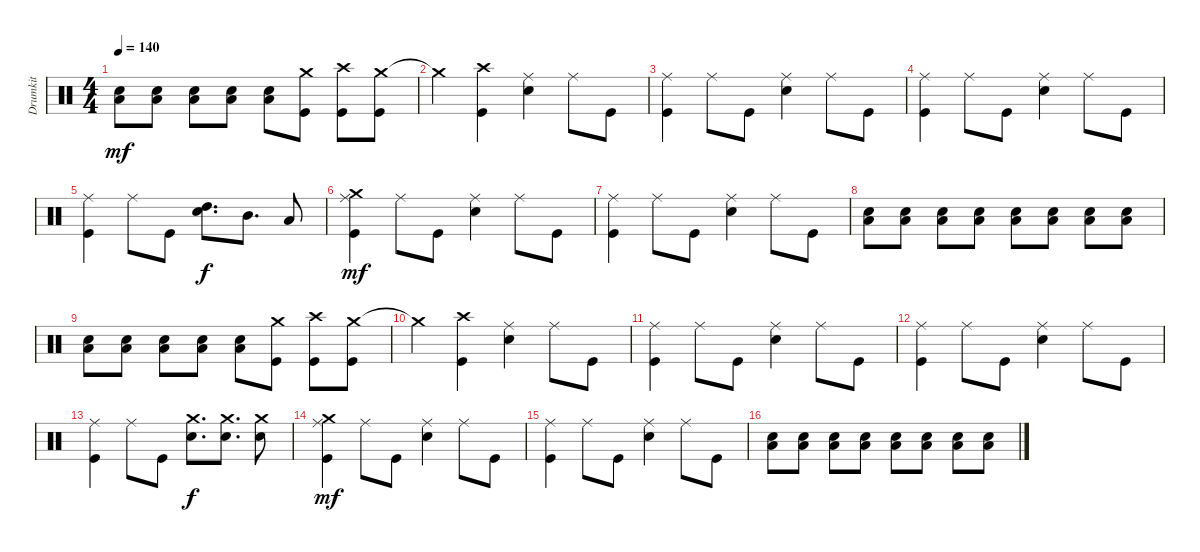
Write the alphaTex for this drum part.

\track ("Drumkit" "Drumkit") {instrument percussion}
\staff {score}
\articulation defaults
\ts (4 4)
\tempo 140
\clef neutral
\ks c
("Snare (hit) 2" "Low Tom (hit)").8{dy mf} ("Snare (hit) 2" "Low Tom (hit)").8 ("Snare (hit) 2" "Low Tom (hit)").8 ("Snare (hit) 2" "Low Tom (hit)").8 ("Snare (hit) 2" "Low Tom (hit)").8 ("Crash medium (hit)" "Kick (hit)").8 ("Crash high (hit)" "Kick (hit)").8 ("Crash medium (hit)" "Kick (hit)").8 |
"Crash medium (hit)"{t}.4 ("Crash high (hit)" "Kick (hit)").4 ("Ride (middle)" "Snare (hit) 2").4 "Ride (middle)".8 "Kick (hit)".8 |
("Ride (middle)" "Kick (hit)").4 "Ride (middle)".8 "Kick (hit)".8 ("Ride (middle)" "Snare (hit) 2").4 "Ride (middle)".8 "Kick (hit)".8 |
("Ride (middle)" "Kick (hit)").4 "Ride (middle)".8 "Kick (hit)".8 ("Ride (middle)" "Snare (hit) 2").4 "Ride (middle)".8 "Kick (hit)".8 |
("Ride (middle)" "Kick (hit)").4 "Ride (middle)".8 "Kick (hit)".8 ("Snare (hit) 2" "High Tom (hit)").8{d dy f} "Mid Tom (hit)".8{d} "Low Tom (hit)".8 |
("Ride (middle)" "Crash medium (hit)" "Kick (hit)").4{dy mf} "Ride (middle)".8 "Kick (hit)".8 ("Ride (middle)" "Snare (hit) 2").4 "Ride (middle)".8 "Kick (hit)".8 |
("Ride (middle)" "Kick (hit)").4 "Ride (middle)".8 "Kick (hit)".8 ("Ride (middle)" "Snare (hit) 2").4 "Ride (middle)".8 "Kick (hit)".8 |
("Snare (hit) 2" "Low Tom (hit)").8 ("Snare (hit) 2" "Low Tom (hit)").8 ("Snare (hit) 2" "Low Tom (hit)").8 ("Snare (hit) 2" "Low Tom (hit)").8 ("Snare (hit) 2" "Low Tom (hit)").8 ("Snare (hit) 2" "Low Tom (hit)").8 ("Snare (hit) 2" "Low Tom (hit)").8 ("Snare (hit) 2" "Low Tom (hit)").8 |
("Snare (hit) 2" "Low Tom (hit)").8 ("Snare (hit) 2" "Low Tom (hit)").8 ("Snare (hit) 2" "Low Tom (hit)").8 ("Snare (hit) 2" "Low Tom (hit)").8 ("Snare (hit) 2" "Low Tom (hit)").8 ("Crash medium (hit)" "Kick (hit)").8 ("Crash high (hit)" "Kick (hit)").8 ("Crash medium (hit)" "Kick (hit)").8 |
"Crash medium (hit)"{t}.4 ("Crash high (hit)" "Kick (hit)").4 ("Ride (middle)" "Snare (hit) 2").4 "Ride (middle)".8 "Kick (hit)".8 |
("Ride (middle)" "Kick (hit)").4 "Ride (middle)".8 "Kick (hit)".8 ("Ride (middle)" "Snare (hit) 2").4 "Ride (middle)".8 "Kick (hit)".8 |
("Ride (middle)" "Kick (hit)").4 "Ride (middle)".8 "Kick (hit)".8 ("Ride (middle)" "Snare (hit) 2").4 "Ride (middle)".8 "Kick (hit)".8 |
("Ride (middle)" "Kick (hit)").4 "Ride (middle)".8 "Kick (hit)".8 ("Crash medium (hit)" "Snare (hit) 2").8{d dy f} ("Crash medium (hit)" "Snare (hit) 2").8{d} ("Crash medium (hit)" "Snare (hit) 2").8 |
("Ride (middle)" "Crash medium (hit)" "Kick (hit)").4{dy mf} "Ride (middle)".8 "Kick (hit)".8 ("Ride (middle)" "Snare (hit) 2").4 "Ride (middle)".8 "Kick (hit)".8 |
("Ride (middle)" "Kick (hit)").4 "Ride (middle)".8 "Kick (hit)".8 ("Ride (middle)" "Snare (hit) 2").4 "Ride (middle)".8 "Kick (hit)".8 |
("Snare (hit) 2" "Low Tom (hit)").8 ("Snare (hit) 2" "Low Tom (hit)").8 ("Snare (hit) 2" "Low Tom (hit)").8 ("Snare (hit) 2" "Low Tom (hit)").8 ("Snare (hit) 2" "Low Tom (hit)").8 ("Snare (hit) 2" "Low Tom (hit)").8 ("Snare (hit) 2" "Low Tom (hit)").8 ("Snare (hit) 2" "Low Tom (hit)").8
